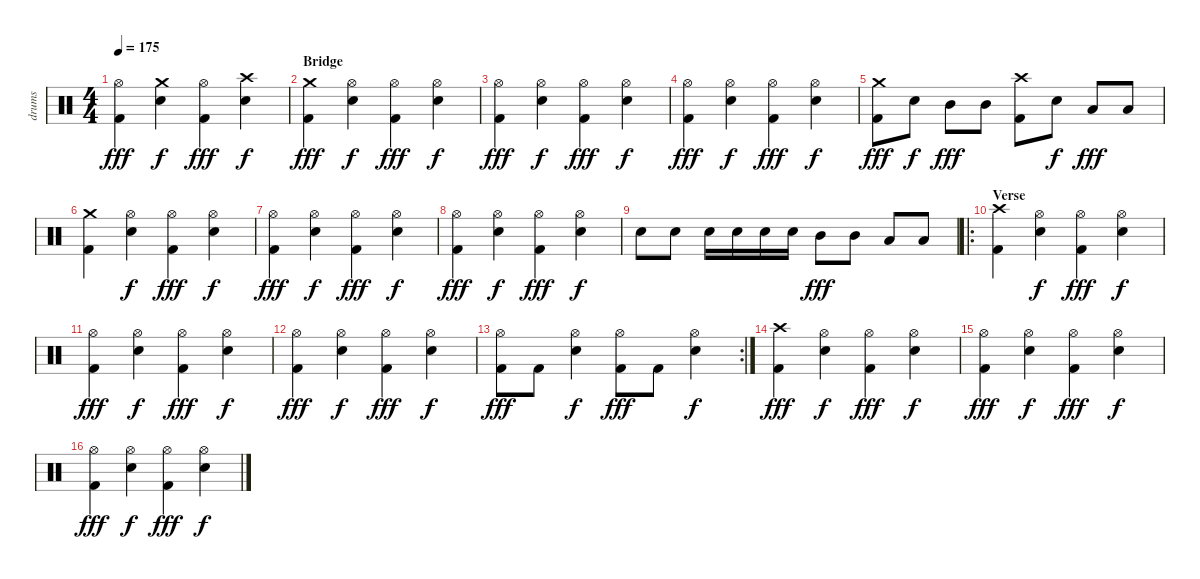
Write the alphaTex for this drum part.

\track ("drums" "drums") {instrument percussion}
\staff {score}
\articulation defaults
\ts (4 4)
\tempo 175
\clef neutral
\ks c
("Hi-Hat (open)" "Kick (hit) 2").4{dy fff} ("Crash medium (hit)" "Snare (hit) 2").4{dy f} ("Hi-Hat (open)" "Kick (hit) 2").4{dy fff} ("Crash high (hit)" "Snare (hit) 2").4{dy f} |
\section ("" "Bridge")
("Crash medium (hit)" "Kick (hit) 2").4{dy fff} ("Hi-Hat (open)" "Snare (hit) 2").4{dy f} ("Hi-Hat (open)" "Kick (hit) 2").4{dy fff} ("Hi-Hat (open)" "Snare (hit) 2").4{dy f} |
("Hi-Hat (open)" "Kick (hit) 2").4{dy fff} ("Hi-Hat (open)" "Snare (hit) 2").4{dy f} ("Hi-Hat (open)" "Kick (hit) 2").4{dy fff} ("Hi-Hat (open)" "Snare (hit) 2").4{dy f} |
("Hi-Hat (open)" "Kick (hit) 2").4{dy fff} ("Hi-Hat (open)" "Snare (hit) 2").4{dy f} ("Hi-Hat (open)" "Kick (hit) 2").4{dy fff} ("Hi-Hat (open)" "Snare (hit) 2").4{dy f} |
("Crash medium (hit)" "Kick (hit) 2").8{dy fff} "Snare (hit) 2".8{dy f} "Mid Tom (hit)".8{dy fff} "Mid Tom (hit)".8 ("Crash high (hit)" "Kick (hit) 2").8 "Snare (hit) 2".8{dy f} "Low Floor Tom (hit)".8{dy fff} "Low Floor Tom (hit)".8 |
("Crash medium (hit)" "Kick (hit) 2").4 ("Hi-Hat (open)" "Snare (hit) 2").4{dy f} ("Hi-Hat (open)" "Kick (hit) 2").4{dy fff} ("Hi-Hat (open)" "Snare (hit) 2").4{dy f} |
("Hi-Hat (open)" "Kick (hit) 2").4{dy fff} ("Hi-Hat (open)" "Snare (hit) 2").4{dy f} ("Hi-Hat (open)" "Kick (hit) 2").4{dy fff} ("Hi-Hat (open)" "Snare (hit) 2").4{dy f} |
("Hi-Hat (open)" "Kick (hit) 2").4{dy fff} ("Hi-Hat (open)" "Snare (hit) 2").4{dy f} ("Hi-Hat (open)" "Kick (hit) 2").4{dy fff} ("Hi-Hat (open)" "Snare (hit) 2").4{dy f} |
"Snare (hit) 2".8 "Snare (hit) 2".8 "Snare (hit) 2".16 "Snare (hit) 2".16 "Snare (hit) 2".16 "Snare (hit) 2".16 "Mid Tom (hit)".8{dy fff} "Mid Tom (hit)".8 "Low Floor Tom (hit)".8 "Low Floor Tom (hit)".8 |
\ro
\section ("" "Verse")
("Crash high (hit)" "Kick (hit) 2").4 ("Hi-Hat (open)" "Snare (hit) 2").4{dy f} ("Hi-Hat (open)" "Kick (hit) 2").4{dy fff} ("Hi-Hat (open)" "Snare (hit) 2").4{dy f} |
("Hi-Hat (open)" "Kick (hit) 2").4{dy fff} ("Hi-Hat (open)" "Snare (hit) 2").4{dy f} ("Hi-Hat (open)" "Kick (hit) 2").4{dy fff} ("Hi-Hat (open)" "Snare (hit) 2").4{dy f} |
("Hi-Hat (open)" "Kick (hit) 2").4{dy fff} ("Hi-Hat (open)" "Snare (hit) 2").4{dy f} ("Hi-Hat (open)" "Kick (hit) 2").4{dy fff} ("Hi-Hat (open)" "Snare (hit) 2").4{dy f} |
\rc 2
("Hi-Hat (open)" "Kick (hit) 2").8{dy fff} "Kick (hit) 2".8 ("Hi-Hat (open)" "Snare (hit) 2").4{dy f} ("Hi-Hat (open)" "Kick (hit) 2").8{dy fff} "Kick (hit) 2".8 ("Hi-Hat (open)" "Snare (hit) 2").4{dy f} |
("Crash high (hit)" "Kick (hit) 2").4{dy fff} ("Hi-Hat (open)" "Snare (hit) 2").4{dy f} ("Hi-Hat (open)" "Kick (hit) 2").4{dy fff} ("Hi-Hat (open)" "Snare (hit) 2").4{dy f} |
("Hi-Hat (open)" "Kick (hit) 2").4{dy fff} ("Hi-Hat (open)" "Snare (hit) 2").4{dy f} ("Hi-Hat (open)" "Kick (hit) 2").4{dy fff} ("Hi-Hat (open)" "Snare (hit) 2").4{dy f} |
("Hi-Hat (open)" "Kick (hit) 2").4{dy fff} ("Hi-Hat (open)" "Snare (hit) 2").4{dy f} ("Hi-Hat (open)" "Kick (hit) 2").4{dy fff} ("Hi-Hat (open)" "Snare (hit) 2").4{dy f}
